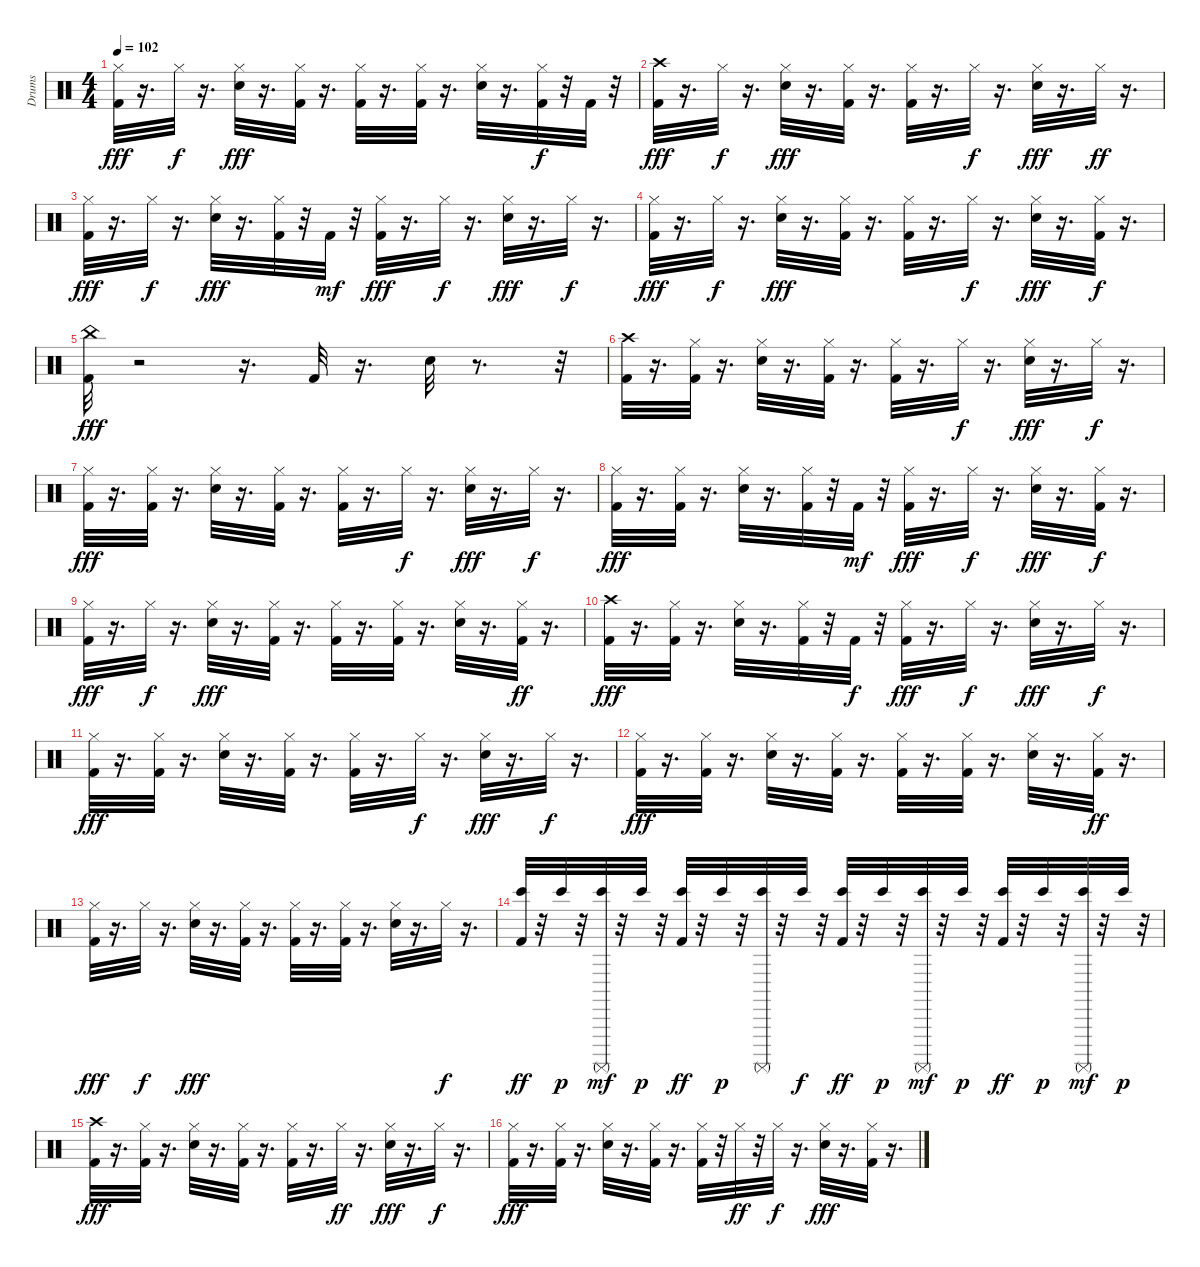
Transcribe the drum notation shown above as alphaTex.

\track ("Drums" "Drums") {instrument percussion}
\staff {score}
\articulation defaults
\ts (4 4)
\tempo 102
\clef neutral
\ks c
("Hi-Hat (closed)" "Kick (hit) 2").32{dy fff} r.16{d} "Hi-Hat (closed)".32{dy f} r.16{d} ("Hi-Hat (closed)" "Electric Snare (hit)").32{dy fff} r.16{d} ("Hi-Hat (closed)" "Kick (hit) 2").32 r.16{d} ("Hi-Hat (closed)" "Kick (hit) 2").32 r.16{d} ("Kick (hit) 2" "Hi-Hat (closed)").32 r.16{d} ("Hi-Hat (closed)" "Electric Snare (hit)").32 r.16{d} ("Kick (hit) 2" "Hi-Hat (closed)").32{dy f} r.32 "Kick (hit) 2".32 r.32 |
("Crash high (hit)" "Kick (hit) 2").32{dy fff} r.16{d} "Hi-Hat (closed)".32{dy f} r.16{d} ("Hi-Hat (closed)" "Electric Snare (hit)").32{dy fff} r.16{d} ("Hi-Hat (closed)" "Kick (hit) 2").32 r.16{d} ("Hi-Hat (closed)" "Kick (hit) 2").32 r.16{d} "Hi-Hat (closed)".32{dy f} r.16{d} ("Hi-Hat (closed)" "Electric Snare (hit)").32{dy fff} r.16{d} "Hi-Hat (closed)".32{dy ff} r.16{d} |
("Hi-Hat (closed)" "Kick (hit) 2").32{dy fff} r.16{d} "Hi-Hat (closed)".32{dy f} r.16{d} ("Hi-Hat (closed)" "Electric Snare (hit)").32{dy fff} r.16{d} ("Hi-Hat (closed)" "Kick (hit) 2").32 r.32 "Kick (hit) 2".32{dy mf} r.32 ("Hi-Hat (closed)" "Kick (hit) 2").32{dy fff} r.16{d} "Hi-Hat (closed)".32{dy f} r.16{d} ("Hi-Hat (closed)" "Electric Snare (hit)").32{dy fff} r.16{d} "Hi-Hat (closed)".32{dy f} r.16{d} |
("Hi-Hat (closed)" "Kick (hit) 2").32{dy fff} r.16{d} "Hi-Hat (closed)".32{dy f} r.16{d} ("Hi-Hat (closed)" "Electric Snare (hit)").32{dy fff} r.16{d} ("Hi-Hat (closed)" "Kick (hit) 2").32 r.16{d} ("Hi-Hat (closed)" "Kick (hit) 2").32 r.16{d} "Hi-Hat (closed)".32{dy f} r.16{d} ("Hi-Hat (closed)" "Electric Snare (hit)").32{dy fff} r.16{d} ("Kick (hit) 2" "Hi-Hat (closed)").32{dy f} r.16{d} |
("China (hit)" "Kick (hit) 2").32{dy fff} r.2 r.16{d} "Kick (hit) 2".32 r.16{d} "Electric Snare (hit)".32 r.8{d} r.32 |
("Crash high (hit)" "Kick (hit) 2").32 r.16{d} ("Hi-Hat (closed)" "Kick (hit) 2").32 r.16{d} ("Hi-Hat (closed)" "Electric Snare (hit)").32 r.16{d} ("Hi-Hat (closed)" "Kick (hit) 2").32 r.16{d} ("Hi-Hat (closed)" "Kick (hit) 2").32 r.16{d} "Hi-Hat (closed)".32{dy f} r.16{d} ("Hi-Hat (closed)" "Electric Snare (hit)").32{dy fff} r.16{d} "Hi-Hat (closed)".32{dy f} r.16{d} |
("Hi-Hat (closed)" "Kick (hit) 2").32{dy fff} r.16{d} ("Hi-Hat (closed)" "Kick (hit) 2").32 r.16{d} ("Hi-Hat (closed)" "Electric Snare (hit)").32 r.16{d} ("Hi-Hat (closed)" "Kick (hit) 2").32 r.16{d} ("Hi-Hat (closed)" "Kick (hit) 2").32 r.16{d} "Hi-Hat (closed)".32{dy f} r.16{d} ("Hi-Hat (closed)" "Electric Snare (hit)").32{dy fff} r.16{d} "Hi-Hat (closed)".32{dy f} r.16{d} |
("Hi-Hat (closed)" "Kick (hit) 2").32{dy fff} r.16{d} ("Hi-Hat (closed)" "Kick (hit) 2").32 r.16{d} ("Hi-Hat (closed)" "Electric Snare (hit)").32 r.16{d} ("Hi-Hat (closed)" "Kick (hit) 2").32 r.32 "Kick (hit) 2".32{dy mf} r.32 ("Hi-Hat (closed)" "Kick (hit) 2").32{dy fff} r.16{d} "Hi-Hat (closed)".32{dy f} r.16{d} ("Hi-Hat (closed)" "Electric Snare (hit)").32{dy fff} r.16{d} ("Kick (hit) 2" "Hi-Hat (closed)").32{dy f} r.16{d} |
("Hi-Hat (closed)" "Kick (hit) 2").32{dy fff} r.16{d} "Hi-Hat (closed)".32{dy f} r.16{d} ("Hi-Hat (closed)" "Electric Snare (hit)").32{dy fff} r.16{d} ("Hi-Hat (closed)" "Kick (hit) 2").32 r.16{d} ("Hi-Hat (closed)" "Kick (hit) 2").32 r.16{d} ("Kick (hit) 2" "Hi-Hat (closed)").32 r.16{d} ("Hi-Hat (closed)" "Electric Snare (hit)").32 r.16{d} ("Kick (hit) 2" "Hi-Hat (closed)").32{dy ff} r.16{d} |
("Crash high (hit)" "Kick (hit) 2").32{dy fff} r.16{d} ("Hi-Hat (closed)" "Kick (hit) 2").32 r.16{d} ("Hi-Hat (closed)" "Electric Snare (hit)").32 r.16{d} ("Hi-Hat (closed)" "Kick (hit) 2").32 r.32 "Kick (hit) 2".32{dy f} r.32 ("Hi-Hat (closed)" "Kick (hit) 2").32{dy fff} r.16{d} "Hi-Hat (closed)".32{dy f} r.16{d} ("Hi-Hat (closed)" "Electric Snare (hit)").32{dy fff} r.16{d} "Hi-Hat (closed)".32{dy f} r.16{d} |
("Hi-Hat (closed)" "Kick (hit) 2").32{dy fff} r.16{d} ("Hi-Hat (closed)" "Kick (hit) 2").32 r.16{d} ("Hi-Hat (closed)" "Electric Snare (hit)").32 r.16{d} ("Hi-Hat (closed)" "Kick (hit) 2").32 r.16{d} ("Hi-Hat (closed)" "Kick (hit) 2").32 r.16{d} "Hi-Hat (closed)".32{dy f} r.16{d} ("Hi-Hat (closed)" "Electric Snare (hit)").32{dy fff} r.16{d} "Hi-Hat (closed)".32{dy f} r.16{d} |
("Hi-Hat (closed)" "Kick (hit) 2").32{dy fff} r.16{d} ("Hi-Hat (closed)" "Kick (hit) 2").32 r.16{d} ("Hi-Hat (closed)" "Electric Snare (hit)").32 r.16{d} ("Hi-Hat (closed)" "Kick (hit) 2").32 r.16{d} ("Hi-Hat (closed)" "Kick (hit) 2").32 r.16{d} ("Kick (hit) 2" "Hi-Hat (closed)").32 r.16{d} ("Hi-Hat (closed)" "Electric Snare (hit)").32 r.16{d} ("Kick (hit) 2" "Hi-Hat (closed)").32{dy ff} r.16{d} |
("Hi-Hat (closed)" "Kick (hit) 2").32{dy fff} r.16{d} "Hi-Hat (closed)".32{dy f} r.16{d} ("Hi-Hat (closed)" "Electric Snare (hit)").32{dy fff} r.16{d} ("Hi-Hat (closed)" "Kick (hit) 2").32 r.16{d} ("Hi-Hat (closed)" "Kick (hit) 2").32 r.16{d} ("Kick (hit) 2" "Hi-Hat (closed)").32 r.16{d} ("Hi-Hat (closed)" "Electric Snare (hit)").32 r.16{d} "Hi-Hat (closed)".32{dy f} r.16{d} |
("Bongo High (hit)" "Kick (hit) 2").32{dy ff} r.32 "Bongo High (hit)".32{dy p} r.32 ("Bongo High (hit)" "Surdo (mute)").32{dy mf} r.32 "Bongo High (hit)".32{dy p} r.32 ("Bongo High (hit)" "Kick (hit) 2").32{dy ff} r.32 "Bongo High (hit)".32{dy p} r.32 ("Bongo High (hit)" "Surdo (mute)").32 r.32 "Bongo High (hit)".32{dy f} r.32 ("Bongo High (hit)" "Kick (hit) 2").32{dy ff} r.32 "Bongo High (hit)".32{dy p} r.32 ("Bongo High (hit)" "Surdo (mute)").32{dy mf} r.32 "Bongo High (hit)".32{dy p} r.32 ("Bongo High (hit)" "Kick (hit) 2").32{dy ff} r.32 "Bongo High (hit)".32{dy p} r.32 ("Bongo High (hit)" "Surdo (mute)").32{dy mf} r.32 "Bongo High (hit)".32{dy p} r.32 |
("Crash high (hit)" "Kick (hit) 2").32{dy fff} r.16{d} ("Hi-Hat (closed)" "Kick (hit) 2").32 r.16{d} ("Hi-Hat (closed)" "Electric Snare (hit)").32 r.16{d} ("Hi-Hat (closed)" "Kick (hit) 2").32 r.16{d} ("Hi-Hat (closed)" "Kick (hit) 2").32 r.16{d} "Hi-Hat (closed)".32{dy ff} r.16{d} ("Hi-Hat (closed)" "Electric Snare (hit)").32{dy fff} r.16{d} "Hi-Hat (closed)".32{dy f} r.16{d} |
("Hi-Hat (closed)" "Kick (hit) 2").32{dy fff} r.16{d} ("Hi-Hat (closed)" "Kick (hit) 2").32 r.16{d} ("Hi-Hat (closed)" "Electric Snare (hit)").32 r.16{d} ("Hi-Hat (closed)" "Kick (hit) 2").32 r.16{d} ("Hi-Hat (closed)" "Kick (hit) 2").32 r.32 "Hi-Hat (closed)".32{dy ff} r.32 "Hi-Hat (closed)".32{dy f} r.16{d} ("Hi-Hat (closed)" "Electric Snare (hit)").32{dy fff} r.16{d} ("Kick (hit) 2" "Hi-Hat (closed)").32 r.16{d}
